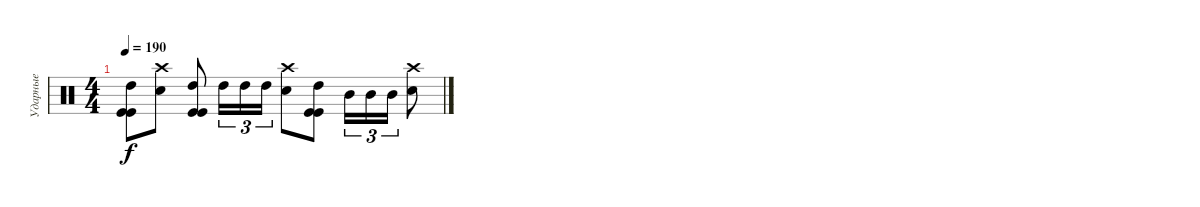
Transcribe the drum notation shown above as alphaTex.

\track ("Ударные" "Ударные") {instrument percussion}
\staff {score}
\articulation defaults
\ts (4 4)
\tempo 190
\clef neutral
\ks c
("High Tom (hit)" "Kick (hit)" "Kick (hit)").8{dy f} ("Crash high (hit)" "Electric Snare (hit)").8 ("High Tom (hit)" "Kick (hit)" "Kick (hit)").8 "High Tom (hit)".16{tu (3 2)} "High Tom (hit)".16{tu (3 2)} "High Tom (hit)".16{tu (3 2)} ("Crash high (hit)" "Electric Snare (hit)").8 ("High Tom (hit)" "Kick (hit)" "Kick (hit)").8 "Mid Tom (hit)".16{tu (3 2)} "Mid Tom (hit)".16{tu (3 2)} "Mid Tom (hit)".16{tu (3 2)} ("Crash high (hit)" "Electric Snare (hit)").8
